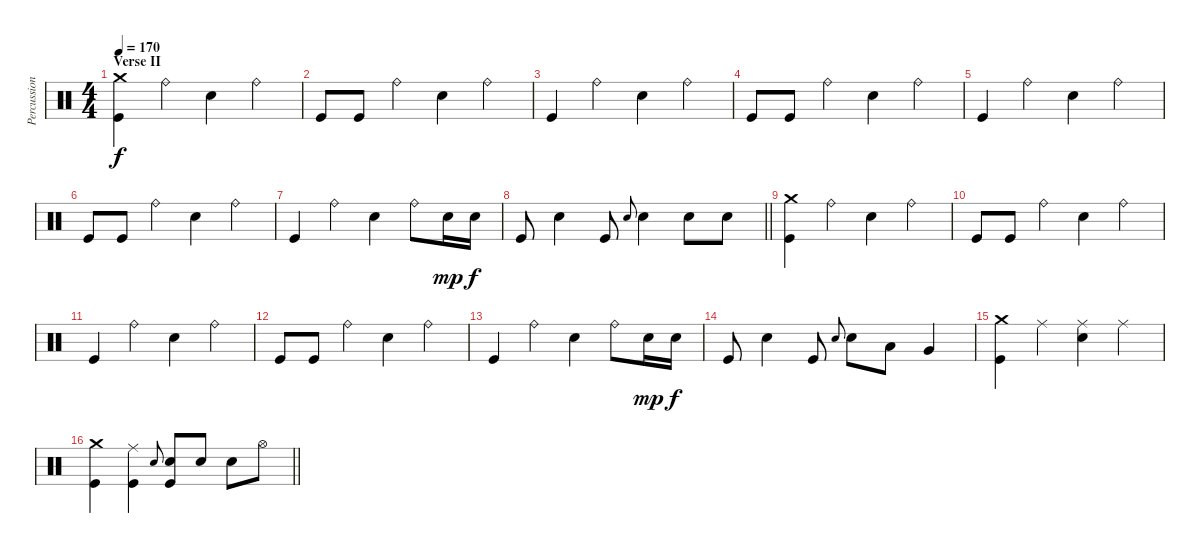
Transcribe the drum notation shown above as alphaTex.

\track ("Percussion" "Percussion") {instrument percussion}
\staff {score}
\articulation defaults
\ts (4 4)
\section ("" "Verse II")
\tempo 170
\clef neutral
\ks c
("Crash medium (hit)" "Kick (hit)").4{dy f} "Ride (bell)".4 "Electric Snare (hit)".4 "Ride (bell)".4 |
"Kick (hit)".8 "Kick (hit)".8 "Ride (bell)".4 "Electric Snare (hit)".4 "Ride (bell)".4 |
"Kick (hit)".4 "Ride (bell)".4 "Electric Snare (hit)".4 "Ride (bell)".4 |
"Kick (hit)".8 "Kick (hit)".8 "Ride (bell)".4 "Electric Snare (hit)".4 "Ride (bell)".4 |
"Kick (hit)".4 "Ride (bell)".4 "Electric Snare (hit)".4 "Ride (bell)".4 |
"Kick (hit)".8 "Kick (hit)".8 "Ride (bell)".4 "Electric Snare (hit)".4 "Ride (bell)".4 |
"Kick (hit)".4 "Ride (bell)".4 "Electric Snare (hit)".4 "Ride (bell)".8 "Electric Snare (hit)".16{dy mp} "Electric Snare (hit)".16{dy f} |
\barLineRight lightlight "Kick (hit)".8 "Electric Snare (hit)".4 "Kick (hit)".8 "Electric Snare (hit)".8{gr onbeat} "Electric Snare (hit)".4 "Electric Snare (hit)".8 "Electric Snare (hit)".8
|
("Crash medium (hit)" "Kick (hit)").4 "Ride (bell)".4 "Electric Snare (hit)".4 "Ride (bell)".4 |
"Kick (hit)".8 "Kick (hit)".8 "Ride (bell)".4 "Electric Snare (hit)".4 "Ride (bell)".4 |
"Kick (hit)".4 "Ride (bell)".4 "Electric Snare (hit)".4 "Ride (bell)".4 |
"Kick (hit)".8 "Kick (hit)".8 "Ride (bell)".4 "Electric Snare (hit)".4 "Ride (bell)".4 |
"Kick (hit)".4 "Ride (bell)".4 "Electric Snare (hit)".4 "Ride (bell)".8 "Electric Snare (hit)".16{dy mp} "Electric Snare (hit)".16{dy f} |
"Kick (hit)".8 "Electric Snare (hit)".4 "Kick (hit)".8 "Electric Snare (hit)".8{gr onbeat} "Electric Snare (hit)".8 "Low Tom (hit)".8 "Very Low Tom (hit)".4 |
("Crash medium (hit)" "Kick (hit)").4 "Ride (middle)".4 ("Ride (middle)" "Electric Snare (hit)").4 "Ride (middle)".4 |
\barLineRight lightlight
("Crash medium (hit)" "Kick (hit)").4 ("Ride (middle)" "Kick (hit)").4 "Electric Snare (hit)".8{gr onbeat} ("Electric Snare (hit)" "Kick (hit)").8 "Electric Snare (hit)".8 "Electric Snare (hit)".8 "Hi-Hat (open)".8
